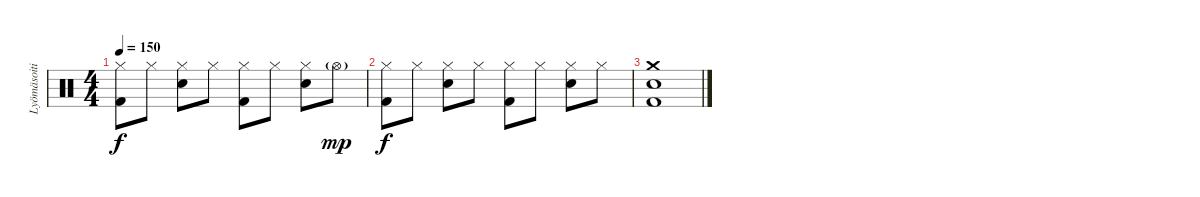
\track ("Lyömäsoitin" "Lyömäsoiti") {instrument percussion}
\staff {score}
\articulation defaults
\ts (4 4)
\tempo 150
\clef neutral
\ks c
("Kick (hit) 2" "Hi-Hat (closed)").8{dy f} "Hi-Hat (closed)".8 ("Snare (hit) 2" "Hi-Hat (closed)").8 "Hi-Hat (closed)".8 ("Kick (hit) 2" "Hi-Hat (closed)").8 "Hi-Hat (closed)".8 ("Snare (hit) 2" "Hi-Hat (closed)").8 "Hi-Hat (open)"{g}.8{dy mp} |
("Kick (hit) 2" "Hi-Hat (closed)").8{dy f} "Hi-Hat (closed)".8 ("Snare (hit) 2" "Hi-Hat (closed)").8 "Hi-Hat (closed)".8 ("Kick (hit) 2" "Hi-Hat (closed)").8 "Hi-Hat (closed)".8 ("Snare (hit) 2" "Hi-Hat (closed)").8 "Hi-Hat (closed)".8 |
("Kick (hit) 2" "Snare (hit) 2" "Crash medium (hit)").1
